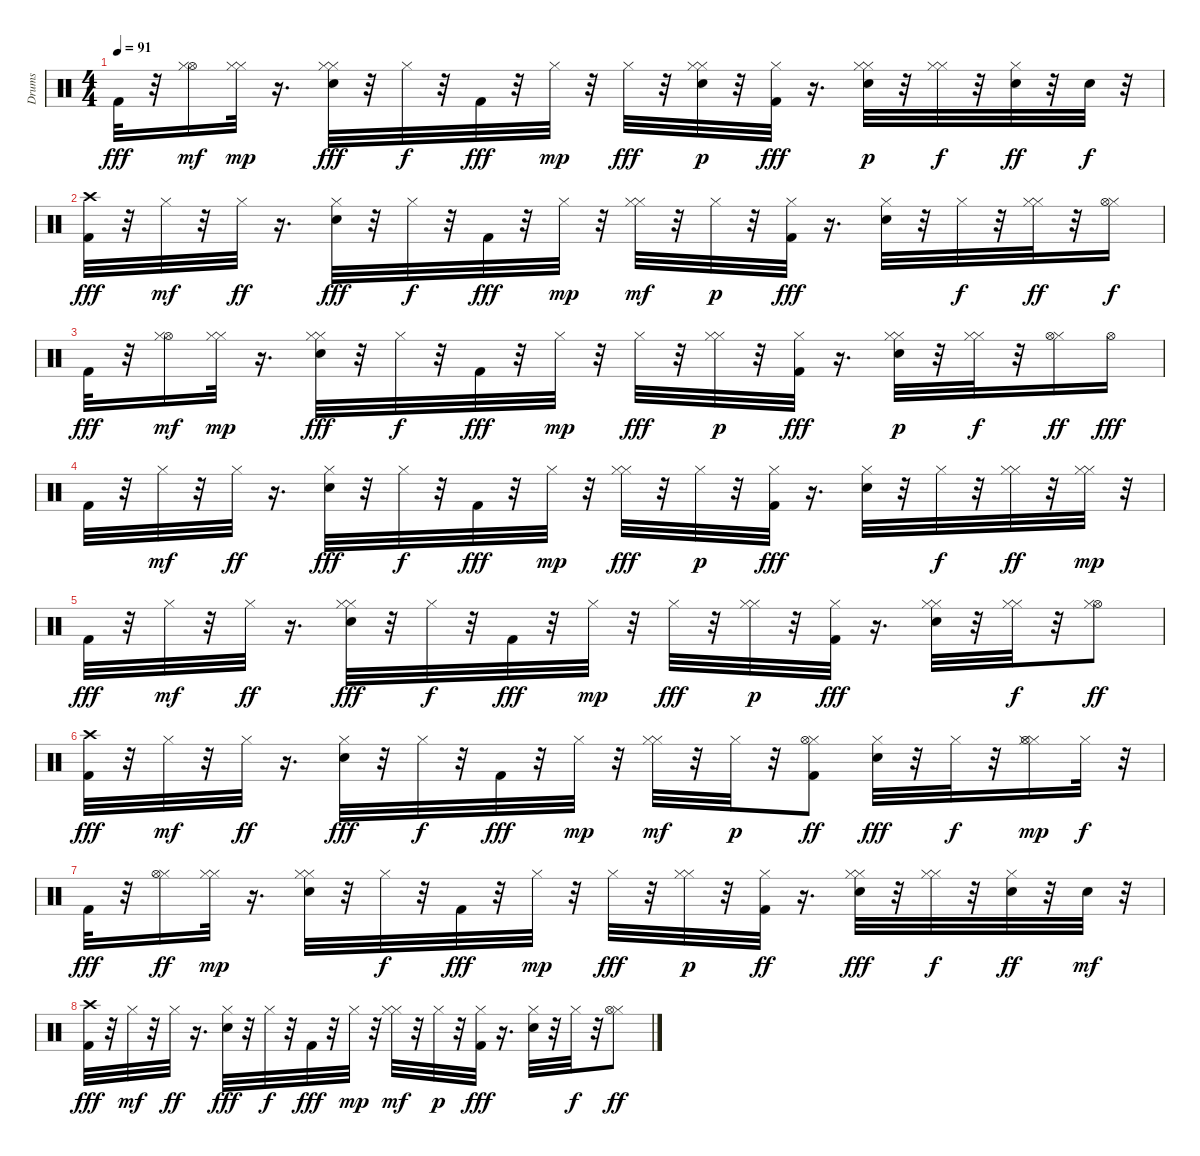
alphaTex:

\track ("Drums" "Drums") {instrument percussion}
\staff {score}
\articulation defaults
\ts (4 4)
\tempo 91
\clef neutral
\ks c "Kick (hit) 2".32{dy fff}
r.32 ("Hi-Hat (open)" "Hi-Hat (closed)").16{dy mf} ("Hi-Hat (closed)" "Hi-Hat (closed)").32{dy mp} r.16{d} ("Hi-Hat (closed)" "Hi-Hat (closed)" "Snare (hit) 2").32{dy fff} r.32 "Hi-Hat (closed)".32{dy f} r.32 "Kick (hit) 2".32{dy fff} r.32 "Hi-Hat (closed)".32{dy mp} r.32 "Hi-Hat (closed)".32{dy fff} r.32 ("Hi-Hat (closed)" "Snare (hit) 2" "Hi-Hat (closed)").32{dy p} r.32 ("Hi-Hat (closed)" "Kick (hit) 2").32{dy fff} r.16{d} ("Hi-Hat (closed)" "Snare (hit) 2" "Hi-Hat (closed)").32{dy p} r.32 ("Hi-Hat (closed)" "Hi-Hat (closed)").32{dy f} r.32 ("Snare (hit) 2" "Hi-Hat (closed)").32{dy ff} r.32 "Snare (hit) 2".32{dy f} r.32 |
("Kick (hit) 2" "Crash high (hit)").32{dy fff} r.32 "Hi-Hat (closed)".32{dy mf} r.32 "Hi-Hat (closed)".32{dy ff} r.16{d} ("Snare (hit) 2" "Hi-Hat (closed)").32{dy fff} r.32 "Hi-Hat (closed)".32{dy f} r.32 "Kick (hit) 2".32{dy fff} r.32 "Hi-Hat (closed)".32{dy mp} r.32 ("Hi-Hat (closed)" "Hi-Hat (closed)").32{dy mf} r.32 "Hi-Hat (closed)".32{dy p} r.32 ("Hi-Hat (closed)" "Kick (hit) 2").32{dy fff} r.16{d} ("Snare (hit) 2" "Hi-Hat (closed)").32 r.32 "Hi-Hat (closed)".32{dy f} r.32 ("Hi-Hat (closed)" "Hi-Hat (closed)").32{dy ff} r.32 ("Hi-Hat (closed)" "Hi-Hat (open)").16{dy f} |
"Kick (hit) 2".32{dy fff} r.32 ("Hi-Hat (open)" "Hi-Hat (closed)").16{dy mf} ("Hi-Hat (closed)" "Hi-Hat (closed)").32{dy mp} r.16{d} ("Hi-Hat (closed)" "Snare (hit) 2" "Hi-Hat (closed)").32{dy fff} r.32 "Hi-Hat (closed)".32{dy f} r.32 "Kick (hit) 2".32{dy fff} r.32 "Hi-Hat (closed)".32{dy mp} r.32 "Hi-Hat (closed)".32{dy fff} r.32 ("Hi-Hat (closed)" "Hi-Hat (closed)").32{dy p} r.32 ("Hi-Hat (closed)" "Kick (hit) 2").32{dy fff} r.16{d} ("Snare (hit) 2" "Hi-Hat (closed)" "Hi-Hat (closed)").32{dy p} r.32 ("Hi-Hat (closed)" "Hi-Hat (closed)").32{dy f} r.32 ("Hi-Hat (closed)" "Hi-Hat (open)").16{dy ff} "Hi-Hat (open)".16{dy fff} |
"Kick (hit) 2".32 r.32 "Hi-Hat (closed)".32{dy mf} r.32 "Hi-Hat (closed)".32{dy ff} r.16{d} ("Snare (hit) 2" "Hi-Hat (closed)").32{dy fff} r.32 "Hi-Hat (closed)".32{dy f} r.32 "Kick (hit) 2".32{dy fff} r.32 "Hi-Hat (closed)".32{dy mp} r.32 ("Hi-Hat (closed)" "Hi-Hat (closed)").32{dy fff} r.32 "Hi-Hat (closed)".32{dy p} r.32 ("Hi-Hat (closed)" "Kick (hit) 2").32{dy fff} r.16{d} ("Hi-Hat (closed)" "Snare (hit) 2").32 r.32 "Hi-Hat (closed)".32{dy f} r.32 ("Hi-Hat (closed)" "Hi-Hat (closed)").32{dy ff} r.32 ("Hi-Hat (closed)" "Hi-Hat (closed)").32{dy mp} r.32 |
"Kick (hit) 2".32{dy fff} r.32 "Hi-Hat (closed)".32{dy mf} r.32 "Hi-Hat (closed)".32{dy ff} r.16{d} ("Hi-Hat (closed)" "Hi-Hat (closed)" "Snare (hit) 2").32{dy fff} r.32 "Hi-Hat (closed)".32{dy f} r.32 "Kick (hit) 2".32{dy fff} r.32 "Hi-Hat (closed)".32{dy mp} r.32 "Hi-Hat (closed)".32{dy fff} r.32 ("Hi-Hat (closed)" "Hi-Hat (closed)").32{dy p} r.32 ("Hi-Hat (closed)" "Kick (hit) 2").32{dy fff} r.16{d} ("Hi-Hat (closed)" "Hi-Hat (closed)" "Snare (hit) 2").32 r.32 ("Hi-Hat (closed)" "Hi-Hat (closed)").32{dy f} r.32 ("Hi-Hat (open)" "Hi-Hat (closed)").8{dy ff} |
("Crash high (hit)" "Kick (hit) 2").32{dy fff} r.32 "Hi-Hat (closed)".32{dy mf} r.32 "Hi-Hat (closed)".32{dy ff} r.16{d} ("Snare (hit) 2" "Hi-Hat (closed)").32{dy fff} r.32 "Hi-Hat (closed)".32{dy f} r.32 "Kick (hit) 2".32{dy fff} r.32 "Hi-Hat (closed)".32{dy mp} r.32 ("Hi-Hat (closed)" "Hi-Hat (closed)").32{dy mf} r.32 "Hi-Hat (closed)".32{dy p} r.32 ("Kick (hit) 2" "Hi-Hat (closed)" "Hi-Hat (open)").8{dy ff} ("Snare (hit) 2" "Hi-Hat (closed)").32{dy fff} r.32 "Hi-Hat (closed)".32{dy f} r.32 ("Hi-Hat (closed)" "Hi-Hat (closed)" "Hi-Hat (open)").16{dy mp} "Hi-Hat (closed)".32{dy f} r.32 |
"Kick (hit) 2".32{dy fff} r.32 ("Hi-Hat (closed)" "Hi-Hat (open)").16{dy ff} ("Hi-Hat (closed)" "Hi-Hat (closed)").32{dy mp} r.16{d} ("Snare (hit) 2" "Hi-Hat (closed)" "Hi-Hat (closed)").32 r.32 "Hi-Hat (closed)".32{dy f} r.32 "Kick (hit) 2".32{dy fff} r.32 "Hi-Hat (closed)".32{dy mp} r.32 "Hi-Hat (closed)".32{dy fff} r.32 ("Hi-Hat (closed)" "Hi-Hat (closed)").32{dy p} r.32 ("Kick (hit) 2" "Hi-Hat (closed)").32{dy ff} r.16{d} ("Snare (hit) 2" "Hi-Hat (closed)" "Hi-Hat (closed)").32{dy fff} r.32 ("Hi-Hat (closed)" "Hi-Hat (closed)").32{dy f} r.32 ("Snare (hit) 2" "Hi-Hat (closed)").32{dy ff} r.32 "Snare (hit) 2".32{dy mf} r.32 |
("Crash high (hit)" "Kick (hit) 2").32{dy fff} r.32 "Hi-Hat (closed)".32{dy mf} r.32 "Hi-Hat (closed)".32{dy ff} r.16{d} ("Snare (hit) 2" "Hi-Hat (closed)").32{dy fff} r.32 "Hi-Hat (closed)".32{dy f} r.32 "Kick (hit) 2".32{dy fff} r.32 "Hi-Hat (closed)".32{dy mp} r.32 ("Hi-Hat (closed)" "Hi-Hat (closed)").32{dy mf} r.32 "Hi-Hat (closed)".32{dy p} r.32 ("Hi-Hat (closed)" "Kick (hit) 2").32{dy fff} r.16{d} ("Hi-Hat (closed)" "Snare (hit) 2").32 r.32 "Hi-Hat (closed)".32{dy f} r.32 ("Hi-Hat (closed)" "Hi-Hat (open)").8{dy ff}
